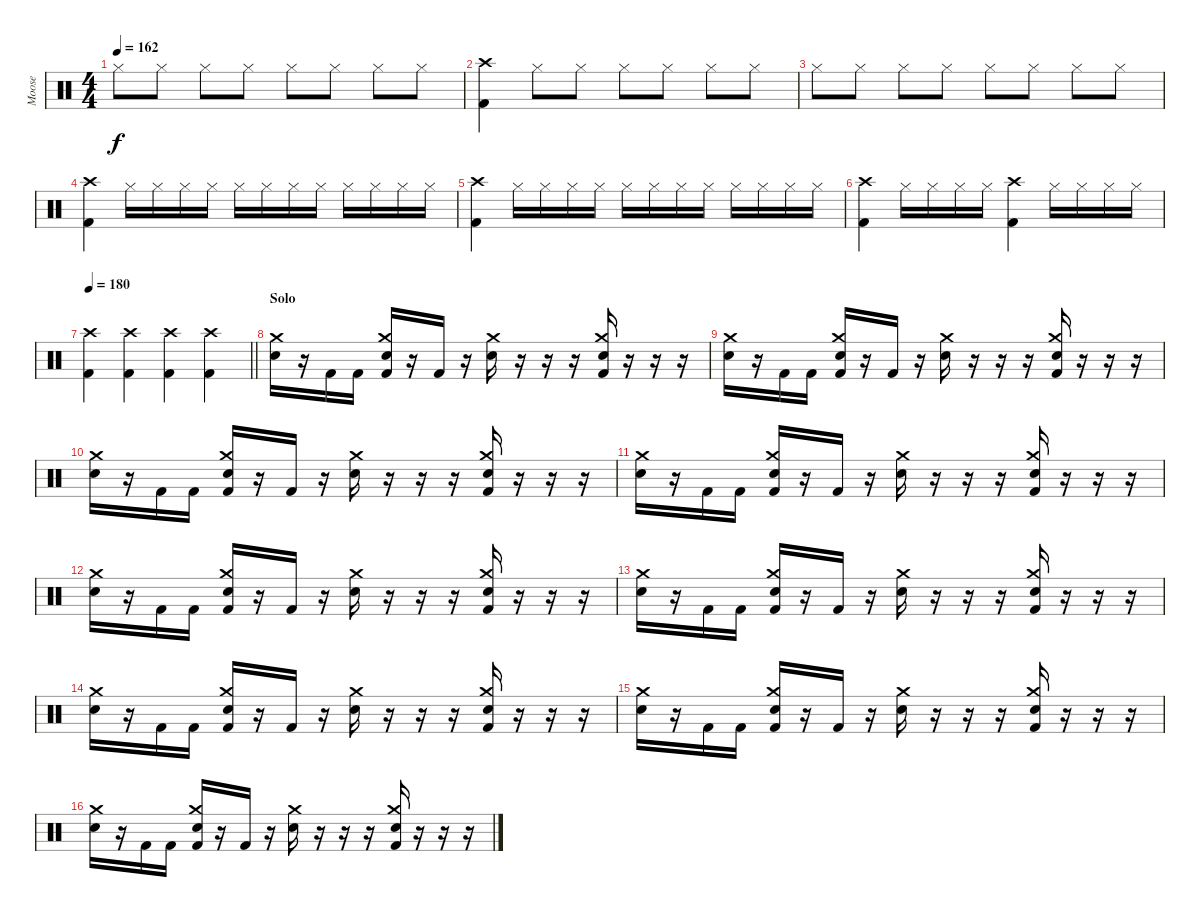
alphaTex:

\track ("Moose" "Moose") {instrument percussion}
\staff {score}
\articulation defaults
\ts (4 4)
\tempo 162
\clef neutral
\ks c "Hi-Hat (closed)".8{dy f} "Hi-Hat (closed)".8 "Hi-Hat (closed)".8 "Hi-Hat (closed)".8 "Hi-Hat (closed)".8 "Hi-Hat (closed)".8 "Hi-Hat (closed)".8 "Hi-Hat (closed)".8
|
("Crash high (hit)" "Kick (hit) 2").4 "Hi-Hat (closed)".8 "Hi-Hat (closed)".8 "Hi-Hat (closed)".8 "Hi-Hat (closed)".8 "Hi-Hat (closed)".8 "Hi-Hat (closed)".8 |
"Hi-Hat (closed)".8 "Hi-Hat (closed)".8 "Hi-Hat (closed)".8 "Hi-Hat (closed)".8 "Hi-Hat (closed)".8 "Hi-Hat (closed)".8 "Hi-Hat (closed)".8 "Hi-Hat (closed)".8 |
("Crash high (hit)" "Kick (hit) 2").4 "Hi-Hat (closed)".16 "Hi-Hat (closed)".16 "Hi-Hat (closed)".16 "Hi-Hat (closed)".16 "Hi-Hat (closed)".16 "Hi-Hat (closed)".16 "Hi-Hat (closed)".16 "Hi-Hat (closed)".16 "Hi-Hat (closed)".16 "Hi-Hat (closed)".16 "Hi-Hat (closed)".16 "Hi-Hat (closed)".16 |
("Crash high (hit)" "Kick (hit) 2").4 "Hi-Hat (closed)".16 "Hi-Hat (closed)".16 "Hi-Hat (closed)".16 "Hi-Hat (closed)".16 "Hi-Hat (closed)".16 "Hi-Hat (closed)".16 "Hi-Hat (closed)".16 "Hi-Hat (closed)".16 "Hi-Hat (closed)".16 "Hi-Hat (closed)".16 "Hi-Hat (closed)".16 "Hi-Hat (closed)".16 |
("Crash high (hit)" "Kick (hit) 2").4 "Hi-Hat (closed)".16 "Hi-Hat (closed)".16 "Hi-Hat (closed)".16 "Hi-Hat (closed)".16 ("Crash high (hit)" "Kick (hit) 2").4 "Hi-Hat (closed)".16 "Hi-Hat (closed)".16 "Hi-Hat (closed)".16 "Hi-Hat (closed)".16 |
\tempo 180
\barLineRight lightlight
("Crash high (hit)" "Kick (hit) 2").4 ("Crash high (hit)" "Kick (hit) 2").4 ("Crash high (hit)" "Kick (hit) 2").4 ("Crash high (hit)" "Kick (hit) 2").4 |
\section ("" "Solo")
("Crash medium (hit)" "Snare (hit) 2").16 r.16 "Kick (hit) 2".16 "Kick (hit) 2".16 ("Crash medium (hit)" "Snare (hit) 2" "Kick (hit) 2").16 r.16 "Kick (hit) 2".16 r.16 ("Crash medium (hit)" "Snare (hit) 2").16 r.16 r.16 r.16 ("Crash medium (hit)" "Snare (hit) 2" "Kick (hit) 2").16 r.16 r.16 r.16 |
("Crash medium (hit)" "Snare (hit) 2").16 r.16 "Kick (hit) 2".16 "Kick (hit) 2".16 ("Crash medium (hit)" "Snare (hit) 2" "Kick (hit) 2").16 r.16 "Kick (hit) 2".16 r.16 ("Crash medium (hit)" "Snare (hit) 2").16 r.16 r.16 r.16 ("Crash medium (hit)" "Snare (hit) 2" "Kick (hit) 2").16 r.16 r.16 r.16 |
("Crash medium (hit)" "Snare (hit) 2").16 r.16 "Kick (hit) 2".16 "Kick (hit) 2".16 ("Crash medium (hit)" "Snare (hit) 2" "Kick (hit) 2").16 r.16 "Kick (hit) 2".16 r.16 ("Crash medium (hit)" "Snare (hit) 2").16 r.16 r.16 r.16 ("Crash medium (hit)" "Snare (hit) 2" "Kick (hit) 2").16 r.16 r.16 r.16 |
("Crash medium (hit)" "Snare (hit) 2").16 r.16 "Kick (hit) 2".16 "Kick (hit) 2".16 ("Crash medium (hit)" "Snare (hit) 2" "Kick (hit) 2").16 r.16 "Kick (hit) 2".16 r.16 ("Crash medium (hit)" "Snare (hit) 2").16 r.16 r.16 r.16 ("Crash medium (hit)" "Snare (hit) 2" "Kick (hit) 2").16 r.16 r.16 r.16 |
("Crash medium (hit)" "Snare (hit) 2").16 r.16 "Kick (hit) 2".16 "Kick (hit) 2".16 ("Crash medium (hit)" "Snare (hit) 2" "Kick (hit) 2").16 r.16 "Kick (hit) 2".16 r.16 ("Crash medium (hit)" "Snare (hit) 2").16 r.16 r.16 r.16 ("Crash medium (hit)" "Snare (hit) 2" "Kick (hit) 2").16 r.16 r.16 r.16 |
("Crash medium (hit)" "Snare (hit) 2").16 r.16 "Kick (hit) 2".16 "Kick (hit) 2".16 ("Crash medium (hit)" "Snare (hit) 2" "Kick (hit) 2").16 r.16 "Kick (hit) 2".16 r.16 ("Crash medium (hit)" "Snare (hit) 2").16 r.16 r.16 r.16 ("Crash medium (hit)" "Snare (hit) 2" "Kick (hit) 2").16 r.16 r.16 r.16 |
("Crash medium (hit)" "Snare (hit) 2").16 r.16 "Kick (hit) 2".16 "Kick (hit) 2".16 ("Crash medium (hit)" "Snare (hit) 2" "Kick (hit) 2").16 r.16 "Kick (hit) 2".16 r.16 ("Crash medium (hit)" "Snare (hit) 2").16 r.16 r.16 r.16 ("Crash medium (hit)" "Snare (hit) 2" "Kick (hit) 2").16 r.16 r.16 r.16 |
("Crash medium (hit)" "Snare (hit) 2").16 r.16 "Kick (hit) 2".16 "Kick (hit) 2".16 ("Crash medium (hit)" "Snare (hit) 2" "Kick (hit) 2").16 r.16 "Kick (hit) 2".16 r.16 ("Crash medium (hit)" "Snare (hit) 2").16 r.16 r.16 r.16 ("Crash medium (hit)" "Snare (hit) 2" "Kick (hit) 2").16 r.16 r.16 r.16 |
("Crash medium (hit)" "Snare (hit) 2").16 r.16 "Kick (hit) 2".16 "Kick (hit) 2".16 ("Crash medium (hit)" "Snare (hit) 2" "Kick (hit) 2").16 r.16 "Kick (hit) 2".16 r.16 ("Crash medium (hit)" "Snare (hit) 2").16 r.16 r.16 r.16 ("Crash medium (hit)" "Snare (hit) 2" "Kick (hit) 2").16 r.16 r.16 r.16
